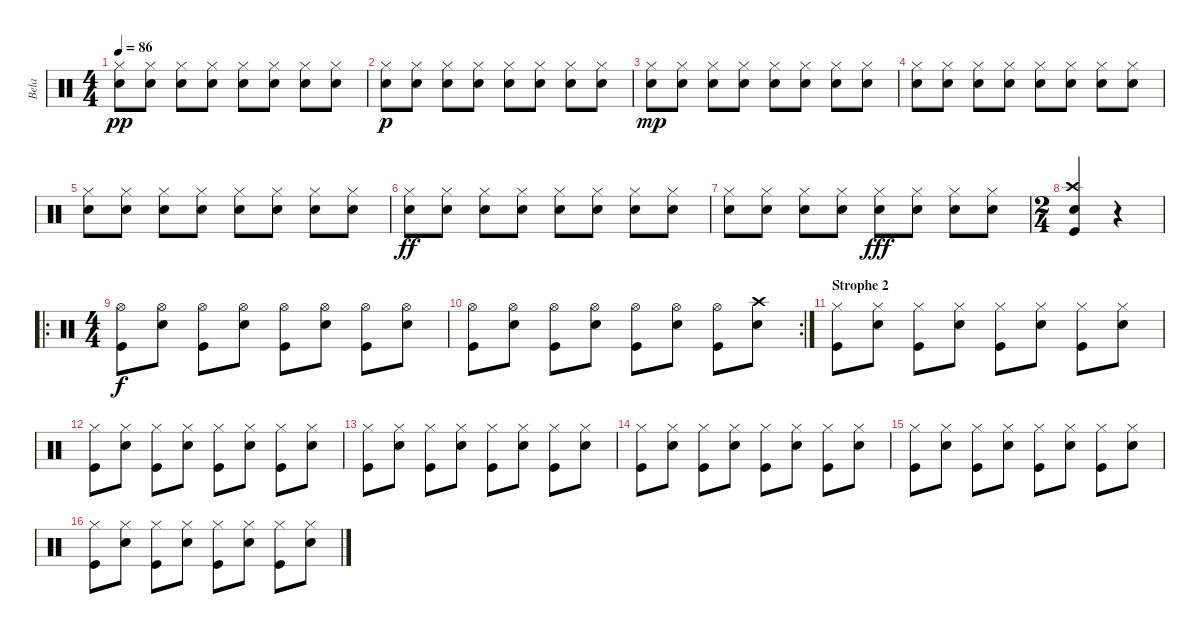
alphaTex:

\track ("Bela" "Bela") {instrument percussion}
\staff {score}
\articulation defaults
\ts (4 4)
\tempo 86
\clef neutral
\ks c
("Hi-Hat (closed)" "Snare (hit) 2").8{dy pp} ("Hi-Hat (closed)" "Snare (hit) 2").8 ("Hi-Hat (closed)" "Snare (hit) 2").8 ("Hi-Hat (closed)" "Snare (hit) 2").8 ("Hi-Hat (closed)" "Snare (hit) 2").8 ("Hi-Hat (closed)" "Snare (hit) 2").8 ("Hi-Hat (closed)" "Snare (hit) 2").8 ("Hi-Hat (closed)" "Snare (hit) 2").8 |
("Hi-Hat (closed)" "Snare (hit) 2").8{dy p} ("Hi-Hat (closed)" "Snare (hit) 2").8 ("Hi-Hat (closed)" "Snare (hit) 2").8 ("Hi-Hat (closed)" "Snare (hit) 2").8 ("Hi-Hat (closed)" "Snare (hit) 2").8 ("Hi-Hat (closed)" "Snare (hit) 2").8 ("Hi-Hat (closed)" "Snare (hit) 2").8 ("Hi-Hat (closed)" "Snare (hit) 2").8 |
("Hi-Hat (closed)" "Snare (hit) 2").8{dy mp} ("Hi-Hat (closed)" "Snare (hit) 2").8 ("Hi-Hat (closed)" "Snare (hit) 2").8 ("Hi-Hat (closed)" "Snare (hit) 2").8 ("Hi-Hat (closed)" "Snare (hit) 2").8 ("Hi-Hat (closed)" "Snare (hit) 2").8 ("Hi-Hat (closed)" "Snare (hit) 2").8 ("Hi-Hat (closed)" "Snare (hit) 2").8 |
("Hi-Hat (closed)" "Snare (hit) 2").8 ("Hi-Hat (closed)" "Snare (hit) 2").8 ("Hi-Hat (closed)" "Snare (hit) 2").8 ("Hi-Hat (closed)" "Snare (hit) 2").8 ("Hi-Hat (closed)" "Snare (hit) 2").8 ("Hi-Hat (closed)" "Snare (hit) 2").8 ("Hi-Hat (closed)" "Snare (hit) 2").8 ("Hi-Hat (closed)" "Snare (hit) 2").8 |
("Hi-Hat (closed)" "Snare (hit) 2").8 ("Hi-Hat (closed)" "Snare (hit) 2").8 ("Hi-Hat (closed)" "Snare (hit) 2").8 ("Hi-Hat (closed)" "Snare (hit) 2").8 ("Hi-Hat (closed)" "Snare (hit) 2").8 ("Hi-Hat (closed)" "Snare (hit) 2").8 ("Hi-Hat (closed)" "Snare (hit) 2").8 ("Hi-Hat (closed)" "Snare (hit) 2").8 |
("Hi-Hat (closed)" "Snare (hit) 2").8{dy ff} ("Hi-Hat (closed)" "Snare (hit) 2").8 ("Hi-Hat (closed)" "Snare (hit) 2").8 ("Hi-Hat (closed)" "Snare (hit) 2").8 ("Hi-Hat (closed)" "Snare (hit) 2").8 ("Hi-Hat (closed)" "Snare (hit) 2").8 ("Hi-Hat (closed)" "Snare (hit) 2").8 ("Hi-Hat (closed)" "Snare (hit) 2").8 |
("Hi-Hat (closed)" "Snare (hit) 2").8 ("Hi-Hat (closed)" "Snare (hit) 2").8 ("Hi-Hat (closed)" "Snare (hit) 2").8 ("Hi-Hat (closed)" "Snare (hit) 2").8 ("Hi-Hat (closed)" "Snare (hit) 2").8{dy fff} ("Hi-Hat (closed)" "Snare (hit) 2").8 ("Hi-Hat (closed)" "Snare (hit) 2").8 ("Hi-Hat (closed)" "Snare (hit) 2").8 |
\ts (2 4)
("Crash high (hit)" "Snare (hit) 2" "Kick (hit)").4 r.4 |
\ro
\ts (4 4)
("Hi-Hat (open)" "Kick (hit)").8{dy f} ("Hi-Hat (open)" "Snare (hit) 2").8 ("Hi-Hat (open)" "Kick (hit)").8 ("Hi-Hat (open)" "Snare (hit) 2").8 ("Hi-Hat (open)" "Kick (hit)").8 ("Hi-Hat (open)" "Snare (hit) 2").8 ("Hi-Hat (open)" "Kick (hit)").8 ("Hi-Hat (open)" "Snare (hit) 2").8 |
\rc 2
("Hi-Hat (open)" "Kick (hit)").8 ("Hi-Hat (open)" "Snare (hit) 2").8 ("Hi-Hat (open)" "Kick (hit)").8 ("Hi-Hat (open)" "Snare (hit) 2").8 ("Hi-Hat (open)" "Kick (hit)").8 ("Hi-Hat (open)" "Snare (hit) 2").8 ("Hi-Hat (open)" "Kick (hit)").8 ("Crash high (hit)" "Snare (hit) 2").8 |
\section ("" "Strophe 2")
("Hi-Hat (closed)" "Kick (hit)").8 ("Hi-Hat (closed)" "Snare (hit) 2").8 ("Hi-Hat (closed)" "Kick (hit)").8 ("Hi-Hat (closed)" "Snare (hit) 2").8 ("Hi-Hat (closed)" "Kick (hit)").8 ("Hi-Hat (closed)" "Snare (hit) 2").8 ("Hi-Hat (closed)" "Kick (hit)").8 ("Hi-Hat (closed)" "Snare (hit) 2").8 |
("Hi-Hat (closed)" "Kick (hit)").8 ("Hi-Hat (closed)" "Snare (hit) 2").8 ("Hi-Hat (closed)" "Kick (hit)").8 ("Hi-Hat (closed)" "Snare (hit) 2").8 ("Hi-Hat (closed)" "Kick (hit)").8 ("Hi-Hat (closed)" "Snare (hit) 2").8 ("Hi-Hat (closed)" "Kick (hit)").8 ("Hi-Hat (closed)" "Snare (hit) 2").8 |
("Hi-Hat (closed)" "Kick (hit)").8 ("Hi-Hat (closed)" "Snare (hit) 2").8 ("Hi-Hat (closed)" "Kick (hit)").8 ("Hi-Hat (closed)" "Snare (hit) 2").8 ("Hi-Hat (closed)" "Kick (hit)").8 ("Hi-Hat (closed)" "Snare (hit) 2").8 ("Hi-Hat (closed)" "Kick (hit)").8 ("Hi-Hat (closed)" "Snare (hit) 2").8 |
("Hi-Hat (closed)" "Kick (hit)").8 ("Hi-Hat (closed)" "Snare (hit) 2").8 ("Hi-Hat (closed)" "Kick (hit)").8 ("Hi-Hat (closed)" "Snare (hit) 2").8 ("Hi-Hat (closed)" "Kick (hit)").8 ("Hi-Hat (closed)" "Snare (hit) 2").8 ("Hi-Hat (closed)" "Kick (hit)").8 ("Hi-Hat (closed)" "Snare (hit) 2").8 |
("Hi-Hat (closed)" "Kick (hit)").8 ("Hi-Hat (closed)" "Snare (hit) 2").8 ("Hi-Hat (closed)" "Kick (hit)").8 ("Hi-Hat (closed)" "Snare (hit) 2").8 ("Hi-Hat (closed)" "Kick (hit)").8 ("Hi-Hat (closed)" "Snare (hit) 2").8 ("Hi-Hat (closed)" "Kick (hit)").8 ("Hi-Hat (closed)" "Snare (hit) 2").8 |
("Hi-Hat (closed)" "Kick (hit)").8 ("Hi-Hat (closed)" "Snare (hit) 2").8 ("Hi-Hat (closed)" "Kick (hit)").8 ("Hi-Hat (closed)" "Snare (hit) 2").8 ("Hi-Hat (closed)" "Kick (hit)").8 ("Hi-Hat (closed)" "Snare (hit) 2").8 ("Hi-Hat (closed)" "Kick (hit)").8 ("Hi-Hat (closed)" "Snare (hit) 2").8
